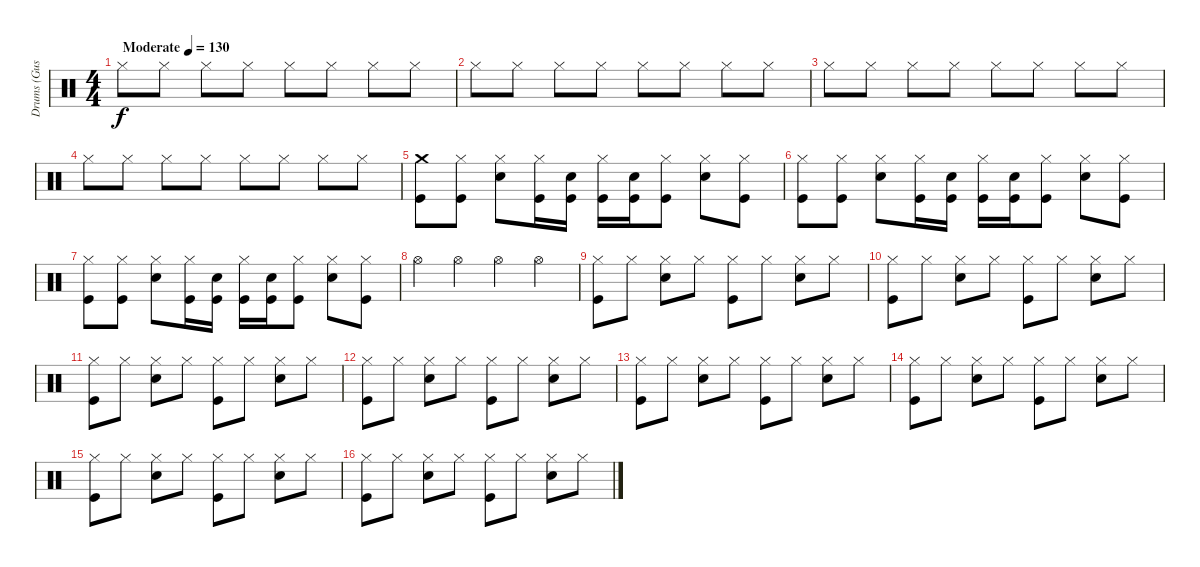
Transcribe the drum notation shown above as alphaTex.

\track ("Drums (Gustav) " "Drums (Gus") {instrument percussion}
\staff {score}
\articulation defaults
\ts (4 4)
\tempo (130 "Moderate")
\clef neutral
\ks c "Hi-Hat (closed)".8{dy f} "Hi-Hat (closed)".8 "Hi-Hat (closed)".8 "Hi-Hat (closed)".8 "Hi-Hat (closed)".8 "Hi-Hat (closed)".8 "Hi-Hat (closed)".8 "Hi-Hat (closed)".8
|
"Hi-Hat (closed)".8 "Hi-Hat (closed)".8 "Hi-Hat (closed)".8 "Hi-Hat (closed)".8 "Hi-Hat (closed)".8 "Hi-Hat (closed)".8 "Hi-Hat (closed)".8 "Hi-Hat (closed)".8 |
"Hi-Hat (closed)".8 "Hi-Hat (closed)".8 "Hi-Hat (closed)".8 "Hi-Hat (closed)".8 "Hi-Hat (closed)".8 "Hi-Hat (closed)".8 "Hi-Hat (closed)".8 "Hi-Hat (closed)".8 |
"Hi-Hat (closed)".8 "Hi-Hat (closed)".8 "Hi-Hat (closed)".8 "Hi-Hat (closed)".8 "Hi-Hat (closed)".8 "Hi-Hat (closed)".8 "Hi-Hat (closed)".8 "Hi-Hat (closed)".8 |
("Kick (hit)" "Crash medium (hit)").8 ("Kick (hit)" "Hi-Hat (closed)").8 ("Snare (hit) 2" "Hi-Hat (closed)").8 ("Kick (hit)" "Hi-Hat (closed)").16 ("Snare (hit) 2" "Kick (hit)").16 ("Kick (hit)" "Hi-Hat (closed)").16 ("Snare (hit) 2" "Kick (hit)").16 ("Kick (hit)" "Hi-Hat (closed)").8 ("Snare (hit) 2" "Hi-Hat (closed)").8 ("Kick (hit)" "Hi-Hat (closed)").8 |
("Kick (hit)" "Hi-Hat (closed)").8 ("Kick (hit)" "Hi-Hat (closed)").8 ("Snare (hit) 2" "Hi-Hat (closed)").8 ("Kick (hit)" "Hi-Hat (closed)").16 ("Snare (hit) 2" "Kick (hit)").16 ("Kick (hit)" "Hi-Hat (closed)").16 ("Snare (hit) 2" "Kick (hit)").16 ("Kick (hit)" "Hi-Hat (closed)").8 ("Snare (hit) 2" "Hi-Hat (closed)").8 ("Kick (hit)" "Hi-Hat (closed)").8 |
("Kick (hit)" "Hi-Hat (closed)").8 ("Kick (hit)" "Hi-Hat (closed)").8 ("Snare (hit) 2" "Hi-Hat (closed)").8 ("Kick (hit)" "Hi-Hat (closed)").16 ("Snare (hit) 2" "Kick (hit)").16 ("Kick (hit)" "Hi-Hat (closed)").16 ("Snare (hit) 2" "Kick (hit)").16 ("Kick (hit)" "Hi-Hat (closed)").8 ("Snare (hit) 2" "Hi-Hat (closed)").8 ("Kick (hit)" "Hi-Hat (closed)").8 |
"Hi-Hat (open)".4 "Hi-Hat (open)".4 "Hi-Hat (open)".4 "Hi-Hat (open)".4 |
("Kick (hit)" "Hi-Hat (closed)").8 "Hi-Hat (closed)".8 ("Snare (hit) 2" "Hi-Hat (closed)").8 "Hi-Hat (closed)".8 ("Kick (hit)" "Hi-Hat (closed)").8 "Hi-Hat (closed)".8 ("Snare (hit) 2" "Hi-Hat (closed)").8 "Hi-Hat (closed)".8 |
("Kick (hit)" "Hi-Hat (closed)").8 "Hi-Hat (closed)".8 ("Snare (hit) 2" "Hi-Hat (closed)").8 "Hi-Hat (closed)".8 ("Kick (hit)" "Hi-Hat (closed)").8 "Hi-Hat (closed)".8 ("Snare (hit) 2" "Hi-Hat (closed)").8 "Hi-Hat (closed)".8 |
("Kick (hit)" "Hi-Hat (closed)").8 "Hi-Hat (closed)".8 ("Snare (hit) 2" "Hi-Hat (closed)").8 "Hi-Hat (closed)".8 ("Kick (hit)" "Hi-Hat (closed)").8 "Hi-Hat (closed)".8 ("Snare (hit) 2" "Hi-Hat (closed)").8 "Hi-Hat (closed)".8 |
("Kick (hit)" "Hi-Hat (closed)").8 "Hi-Hat (closed)".8 ("Snare (hit) 2" "Hi-Hat (closed)").8 "Hi-Hat (closed)".8 ("Kick (hit)" "Hi-Hat (closed)").8 "Hi-Hat (closed)".8 ("Snare (hit) 2" "Hi-Hat (closed)").8 "Hi-Hat (closed)".8 |
("Kick (hit)" "Hi-Hat (closed)").8 "Hi-Hat (closed)".8 ("Snare (hit) 2" "Hi-Hat (closed)").8 "Hi-Hat (closed)".8 ("Kick (hit)" "Hi-Hat (closed)").8 "Hi-Hat (closed)".8 ("Snare (hit) 2" "Hi-Hat (closed)").8 "Hi-Hat (closed)".8 |
("Kick (hit)" "Hi-Hat (closed)").8 "Hi-Hat (closed)".8 ("Snare (hit) 2" "Hi-Hat (closed)").8 "Hi-Hat (closed)".8 ("Kick (hit)" "Hi-Hat (closed)").8 "Hi-Hat (closed)".8 ("Snare (hit) 2" "Hi-Hat (closed)").8 "Hi-Hat (closed)".8 |
("Kick (hit)" "Hi-Hat (closed)").8 "Hi-Hat (closed)".8 ("Snare (hit) 2" "Hi-Hat (closed)").8 "Hi-Hat (closed)".8 ("Kick (hit)" "Hi-Hat (closed)").8 "Hi-Hat (closed)".8 ("Snare (hit) 2" "Hi-Hat (closed)").8 "Hi-Hat (closed)".8 |
("Kick (hit)" "Hi-Hat (closed)").8 "Hi-Hat (closed)".8 ("Snare (hit) 2" "Hi-Hat (closed)").8 "Hi-Hat (closed)".8 ("Kick (hit)" "Hi-Hat (closed)").8 "Hi-Hat (closed)".8 ("Snare (hit) 2" "Hi-Hat (closed)").8 "Hi-Hat (closed)".8
